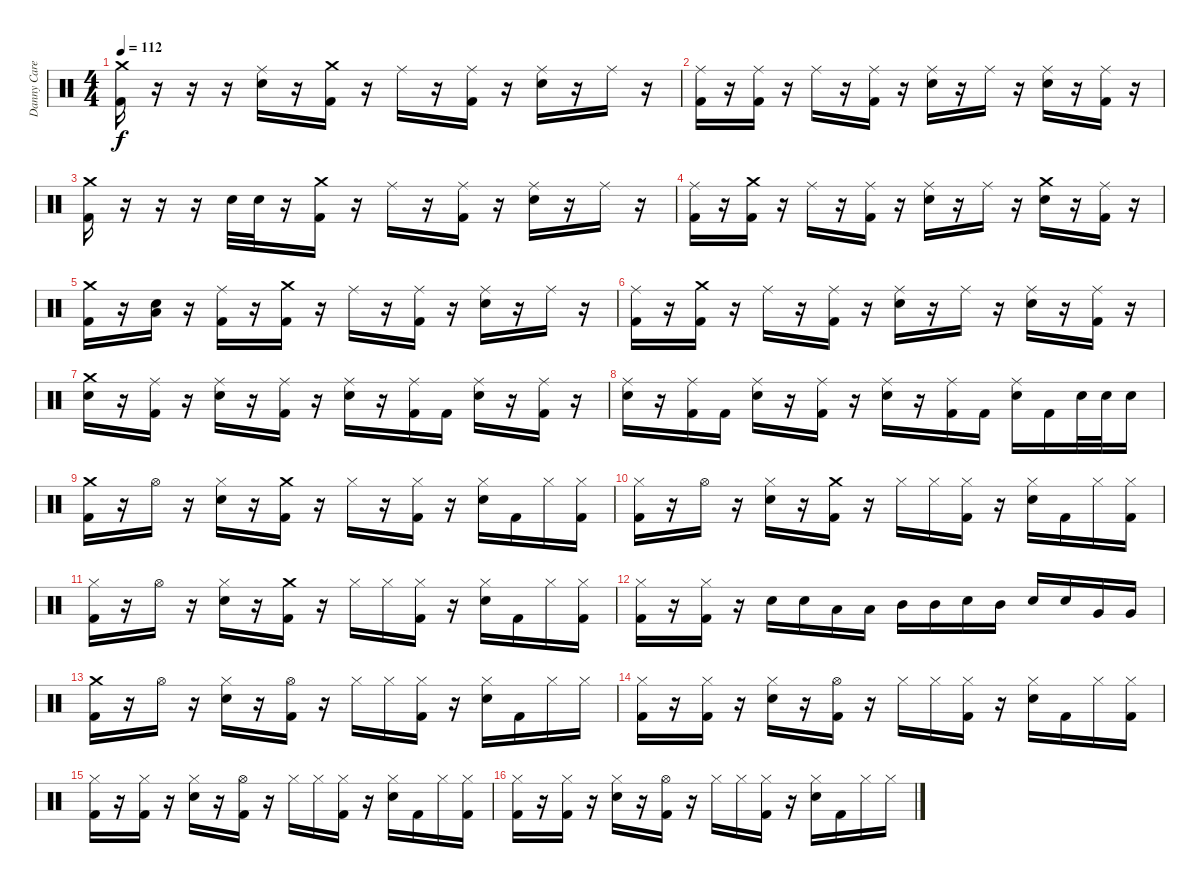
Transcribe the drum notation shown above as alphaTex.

\track ("Danny Carey" "Danny Care") {instrument percussion}
\staff {score}
\articulation defaults
\ts (4 4)
\tempo 112
\clef neutral
\ks c
("Crash medium (hit)" "Kick (hit) 2").16{dy f} r.16 r.16 r.16 ("Ride (middle)" "Snare (hit) 2").16 r.16 ("Crash medium (hit)" "Kick (hit) 2").16 r.16 "Ride (middle)".16 r.16 ("Ride (middle)" "Kick (hit) 2").16 r.16 ("Ride (middle)" "Snare (hit) 2").16 r.16 "Ride (middle)".16 r.16 |
("Ride (middle)" "Kick (hit) 2").16 r.16 ("Ride (middle)" "Kick (hit) 2").16 r.16 "Ride (middle)".16 r.16 ("Ride (middle)" "Kick (hit) 2").16 r.16 ("Ride (middle)" "Snare (hit) 2").16 r.16 "Ride (middle)".16 r.16 ("Ride (middle)" "Snare (hit) 2").16 r.16 ("Ride (middle)" "Kick (hit) 2").16 r.16 |
("Crash medium (hit)" "Kick (hit) 2").16 r.16 r.16 r.16 "Snare (hit) 2".32 "Snare (hit) 2".32 r.16 ("Crash medium (hit)" "Kick (hit) 2").16 r.16 "Ride (middle)".16 r.16 ("Ride (middle)" "Kick (hit) 2").16 r.16 ("Ride (middle)" "Snare (hit) 2").16 r.16 "Ride (middle)".16 r.16 |
("Ride (middle)" "Kick (hit) 2").16 r.16 ("Crash medium (hit)" "Kick (hit) 2").16 r.16 "Ride (middle)".16 r.16 ("Ride (middle)" "Kick (hit) 2").16 r.16 ("Ride (middle)" "Snare (hit) 2").16 r.16 "Ride (middle)".16 r.16 ("Crash medium (hit)" "Snare (hit) 2").16 r.16 ("Ride (middle)" "Kick (hit) 2").16 r.16 |
("Crash medium (hit)" "Kick (hit) 2").16 r.16 ("Snare (hit) 2" "Low Tom (hit)").16 r.16 ("Ride (middle)" "Kick (hit) 2").16 r.16 ("Crash medium (hit)" "Kick (hit) 2").16 r.16 "Ride (middle)".16 r.16 ("Ride (middle)" "Kick (hit) 2").16 r.16 ("Ride (middle)" "Snare (hit) 2").16 r.16 "Ride (middle)".16 r.16 |
("Ride (middle)" "Kick (hit) 2").16 r.16 ("Crash medium (hit)" "Kick (hit) 2").16 r.16 "Ride (middle)".16 r.16 ("Ride (middle)" "Kick (hit) 2").16 r.16 ("Ride (middle)" "Snare (hit) 2").16 r.16 "Ride (middle)".16 r.16 ("Ride (middle)" "Snare (hit) 2").16 r.16 ("Ride (middle)" "Kick (hit) 2").16 r.16 |
("Crash medium (hit)" "Snare (hit) 2").16 r.16 ("Ride (middle)" "Kick (hit) 2").16 r.16 ("Ride (middle)" "Snare (hit) 2").16 r.16 ("Ride (middle)" "Kick (hit) 2").16 r.16 ("Ride (middle)" "Snare (hit) 2").16 r.16 ("Ride (middle)" "Kick (hit) 2").16 "Kick (hit) 2".16 ("Ride (middle)" "Snare (hit) 2").16 r.16 ("Ride (middle)" "Kick (hit) 2").16 r.16 |
("Ride (middle)" "Snare (hit) 2").16 r.16 ("Ride (middle)" "Kick (hit) 2").16 "Kick (hit) 2".16 ("Ride (middle)" "Snare (hit) 2").16 r.16 ("Ride (middle)" "Kick (hit) 2").16 r.16 ("Ride (middle)" "Snare (hit) 2").16 r.16 ("Ride (middle)" "Kick (hit) 2").16 "Kick (hit) 2".16 ("Ride (middle)" "Snare (hit) 2").16 "Kick (hit) 2".16 "Snare (hit) 2".32 "Snare (hit) 2".32 "Snare (hit) 2".16 |
("Crash medium (hit)" "Kick (hit) 2").16 r.16 "Hi-Hat (open)".16 r.16 ("Hi-Hat (closed)" "Snare (hit) 2").16 r.16 ("Crash medium (hit)" "Kick (hit) 2").16 r.16 "Hi-Hat (closed)".16 r.16 ("Hi-Hat (closed)" "Kick (hit) 2").16 r.16 ("Hi-Hat (closed)" "Snare (hit) 2").16 "Kick (hit) 2".16 "Hi-Hat (closed)".16 ("Hi-Hat (closed)" "Kick (hit) 2").16 |
("Hi-Hat (closed)" "Kick (hit) 2").16 r.16 "Hi-Hat (open)".16 r.16 ("Hi-Hat (closed)" "Snare (hit) 2").16 r.16 ("Crash medium (hit)" "Kick (hit) 2").16 r.16 "Hi-Hat (closed)".16 "Hi-Hat (closed)".16 ("Hi-Hat (closed)" "Kick (hit) 2").16 r.16 ("Hi-Hat (closed)" "Snare (hit) 2").16 "Kick (hit) 2".16 "Hi-Hat (closed)".16 ("Hi-Hat (closed)" "Kick (hit) 2").16 |
("Hi-Hat (closed)" "Kick (hit) 2").16 r.16 "Hi-Hat (open)".16 r.16 ("Hi-Hat (closed)" "Snare (hit) 2").16 r.16 ("Crash medium (hit)" "Kick (hit) 2").16 r.16 "Hi-Hat (closed)".16 "Hi-Hat (closed)".16 ("Hi-Hat (closed)" "Kick (hit) 2").16 r.16 ("Hi-Hat (closed)" "Snare (hit) 2").16 "Kick (hit) 2".16 "Hi-Hat (closed)".16 ("Hi-Hat (closed)" "Kick (hit) 2").16 |
("Hi-Hat (closed)" "Kick (hit) 2").16 r.16 ("Hi-Hat (closed)" "Kick (hit) 2").16 r.16 "Snare (hit) 2".16 "Snare (hit) 2".16 "Low Tom (hit)".16 "Low Tom (hit)".16 "Mid Tom (hit)".16 "Mid Tom (hit)".16 "Snare (hit) 2".16 "Mid Tom (hit)".16 "Snare (hit) 2".16 "Snare (hit) 2".16 "Very Low Tom (hit)".16 "Very Low Tom (hit)".16 |
("Crash medium (hit)" "Kick (hit) 2").16 r.16 "Hi-Hat (open)".16 r.16 ("Hi-Hat (closed)" "Snare (hit) 2").16 r.16 ("Hi-Hat (open)" "Kick (hit) 2").16 r.16 "Hi-Hat (closed)".16 "Hi-Hat (closed)".16 ("Hi-Hat (closed)" "Kick (hit) 2").16 r.16 ("Hi-Hat (closed)" "Snare (hit) 2").16 "Kick (hit) 2".16 "Hi-Hat (closed)".16 "Hi-Hat (closed)".16 |
("Hi-Hat (closed)" "Kick (hit) 2").16 r.16 ("Hi-Hat (closed)" "Kick (hit) 2").16 r.16 ("Hi-Hat (closed)" "Snare (hit) 2").16 r.16 ("Hi-Hat (open)" "Kick (hit) 2").16 r.16 "Hi-Hat (closed)".16 "Hi-Hat (closed)".16 ("Hi-Hat (closed)" "Kick (hit) 2").16 r.16 ("Hi-Hat (closed)" "Snare (hit) 2").16 "Kick (hit) 2".16 "Hi-Hat (closed)".16 ("Hi-Hat (closed)" "Kick (hit) 2").16 |
("Hi-Hat (closed)" "Kick (hit) 2").16 r.16 ("Hi-Hat (closed)" "Kick (hit) 2").16 r.16 ("Hi-Hat (closed)" "Snare (hit) 2").16 r.16 ("Hi-Hat (open)" "Kick (hit) 2").16 r.16 "Hi-Hat (closed)".16 "Hi-Hat (closed)".16 ("Hi-Hat (closed)" "Kick (hit) 2").16 r.16 ("Hi-Hat (closed)" "Snare (hit) 2").16 "Kick (hit) 2".16 "Hi-Hat (closed)".16 ("Hi-Hat (closed)" "Kick (hit) 2").16 |
("Hi-Hat (closed)" "Kick (hit) 2").16 r.16 ("Hi-Hat (closed)" "Kick (hit) 2").16 r.16 ("Hi-Hat (closed)" "Snare (hit) 2").16 r.16 ("Hi-Hat (open)" "Kick (hit) 2").16 r.16 "Hi-Hat (closed)".16 "Hi-Hat (closed)".16 ("Hi-Hat (closed)" "Kick (hit) 2").16 r.16 ("Hi-Hat (closed)" "Snare (hit) 2").16 "Kick (hit) 2".16 "Hi-Hat (closed)".16 "Hi-Hat (closed)".16
